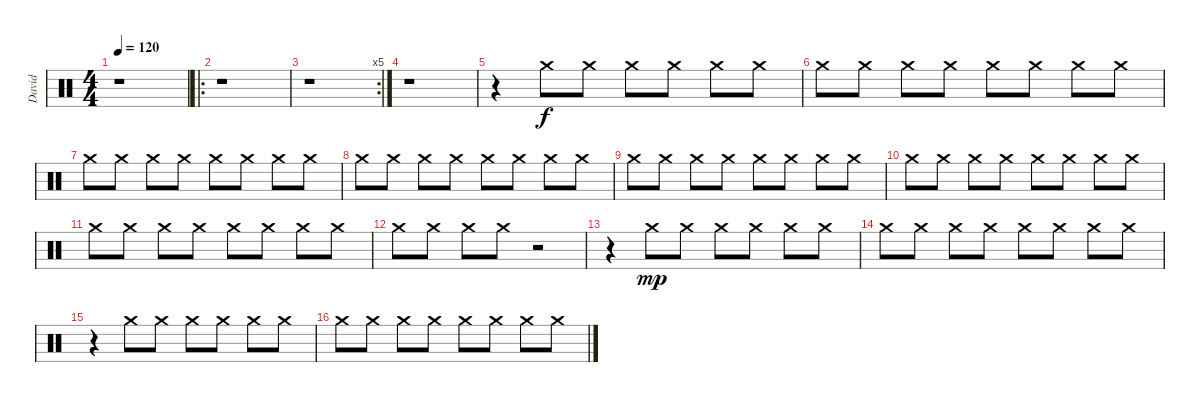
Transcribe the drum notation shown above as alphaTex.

\track ("David" "David") {instrument percussion}
\staff {score}
\articulation defaults
\ts (4 4)
\tempo 120
\clef neutral
\ks c
r.1{dy mp} |
\ro
r.1 |
\rc 5
r.1 |
r.1 |
r.4 "Crash medium (hit)".8{dy f} "Crash medium (hit)".8 "Crash medium (hit)".8 "Crash medium (hit)".8 "Crash medium (hit)".8 "Crash medium (hit)".8 |
"Crash medium (hit)".8 "Crash medium (hit)".8 "Crash medium (hit)".8 "Crash medium (hit)".8 "Crash medium (hit)".8 "Crash medium (hit)".8 "Crash medium (hit)".8 "Crash medium (hit)".8 |
"Crash medium (hit)".8 "Crash medium (hit)".8 "Crash medium (hit)".8 "Crash medium (hit)".8 "Crash medium (hit)".8 "Crash medium (hit)".8 "Crash medium (hit)".8 "Crash medium (hit)".8 |
"Crash medium (hit)".8 "Crash medium (hit)".8 "Crash medium (hit)".8 "Crash medium (hit)".8 "Crash medium (hit)".8 "Crash medium (hit)".8 "Crash medium (hit)".8 "Crash medium (hit)".8 |
"Crash medium (hit)".8 "Crash medium (hit)".8 "Crash medium (hit)".8 "Crash medium (hit)".8 "Crash medium (hit)".8 "Crash medium (hit)".8 "Crash medium (hit)".8 "Crash medium (hit)".8 |
"Crash medium (hit)".8 "Crash medium (hit)".8 "Crash medium (hit)".8 "Crash medium (hit)".8 "Crash medium (hit)".8 "Crash medium (hit)".8 "Crash medium (hit)".8 "Crash medium (hit)".8 |
"Crash medium (hit)".8 "Crash medium (hit)".8 "Crash medium (hit)".8 "Crash medium (hit)".8 "Crash medium (hit)".8 "Crash medium (hit)".8 "Crash medium (hit)".8 "Crash medium (hit)".8 |
"Crash medium (hit)".8 "Crash medium (hit)".8 "Crash medium (hit)".8 "Crash medium (hit)".8 r.2 |
r.4 "Crash medium (hit)".8{dy mp} "Crash medium (hit)".8 "Crash medium (hit)".8 "Crash medium (hit)".8 "Crash medium (hit)".8 "Crash medium (hit)".8 |
"Crash medium (hit)".8 "Crash medium (hit)".8 "Crash medium (hit)".8 "Crash medium (hit)".8 "Crash medium (hit)".8 "Crash medium (hit)".8 "Crash medium (hit)".8 "Crash medium (hit)".8 |
r.4 "Crash medium (hit)".8 "Crash medium (hit)".8 "Crash medium (hit)".8 "Crash medium (hit)".8 "Crash medium (hit)".8 "Crash medium (hit)".8 |
"Crash medium (hit)".8 "Crash medium (hit)".8 "Crash medium (hit)".8 "Crash medium (hit)".8 "Crash medium (hit)".8 "Crash medium (hit)".8 "Crash medium (hit)".8 "Crash medium (hit)".8
